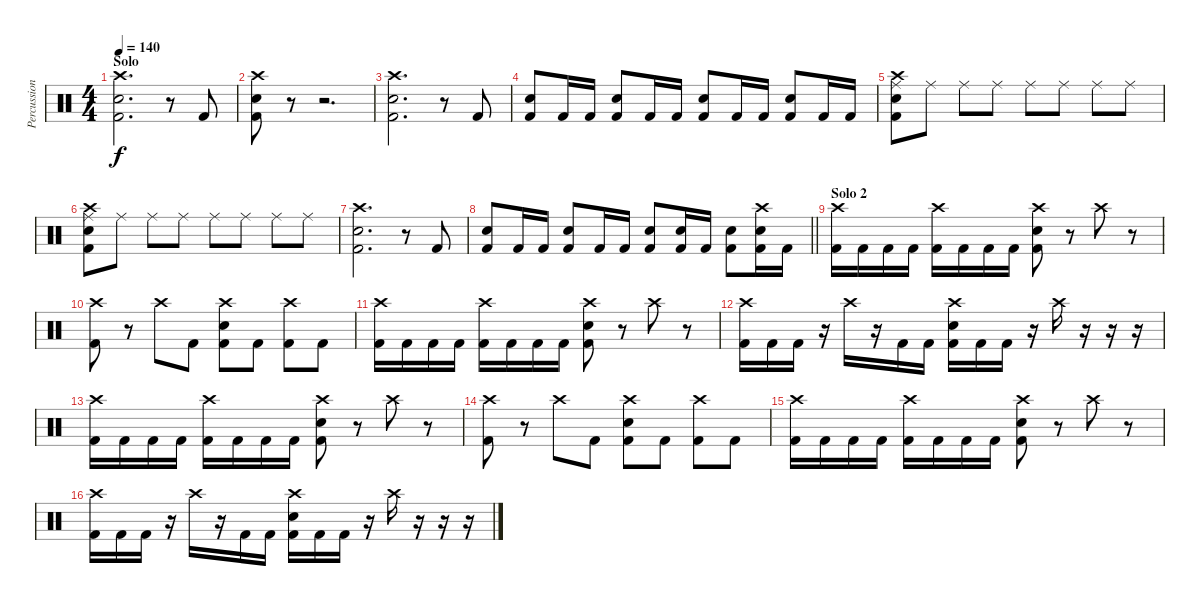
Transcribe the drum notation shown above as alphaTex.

\track ("Percussion" "Percussion") {instrument percussion}
\staff {score}
\articulation defaults
\ts (4 4)
\section ("" "Solo")
\tempo 140
\clef neutral
\ks c
("Crash high (hit)" "Kick (hit) 2" "Electric Snare (hit)").2{d dy f} r.8 "Kick (hit) 2".8 |
("Electric Snare (hit)" "Crash high (hit)" "Kick (hit) 2").8 r.8 r.2{d} |
("Crash high (hit)" "Kick (hit) 2" "Electric Snare (hit)").2{d} r.8 "Kick (hit) 2".8 |
("Electric Snare (hit)" "Kick (hit) 2").8 "Kick (hit) 2".16 "Kick (hit) 2".16 ("Electric Snare (hit)" "Kick (hit) 2").8 "Kick (hit) 2".16 "Kick (hit) 2".16 ("Electric Snare (hit)" "Kick (hit) 2").8 "Kick (hit) 2".16 "Kick (hit) 2".16 ("Electric Snare (hit)" "Kick (hit) 2").8 "Kick (hit) 2".16 "Kick (hit) 2".16 |
("Crash high (hit)" "Ride (middle)" "Kick (hit) 2" "Electric Snare (hit)").8 "Ride (middle)".8 "Ride (middle)".8 "Ride (middle)".8 "Ride (middle)".8 "Ride (middle)".8 "Ride (middle)".8 "Ride (middle)".8 |
("Crash high (hit)" "Ride (middle)" "Kick (hit) 2" "Electric Snare (hit)").8 "Ride (middle)".8 "Ride (middle)".8 "Ride (middle)".8 "Ride (middle)".8 "Ride (middle)".8 "Ride (middle)".8 "Ride (middle)".8 |
("Crash high (hit)" "Kick (hit) 2" "Electric Snare (hit)").2{d} r.8 "Kick (hit) 2".8 |
\barLineRight lightlight
("Electric Snare (hit)" "Kick (hit) 2").8 "Kick (hit) 2".16 "Kick (hit) 2".16 ("Electric Snare (hit)" "Kick (hit) 2").8 "Kick (hit) 2".16 "Kick (hit) 2".16 ("Electric Snare (hit)" "Kick (hit) 2").8 ("Electric Snare (hit)" "Kick (hit) 2").16 "Kick (hit) 2".16 ("Electric Snare (hit)" "Kick (hit) 2").8 ("Crash high (hit)" "Electric Snare (hit)" "Kick (hit) 2").16 "Kick (hit) 2".16 |
\section ("" "Solo 2")
("Crash high (hit)" "Kick (hit) 2").16 "Kick (hit) 2".16 "Kick (hit) 2".16 "Kick (hit) 2".16 ("Crash high (hit)" "Kick (hit) 2").16 "Kick (hit) 2".16 "Kick (hit) 2".16 "Kick (hit) 2".16 ("Crash high (hit)" "Electric Snare (hit)" "Kick (hit) 2").8 r.8 "Crash high (hit)".8 r.8 |
("Crash high (hit)" "Kick (hit) 2").8 r.8 "Crash high (hit)".8 "Kick (hit) 2".8 ("Crash high (hit)" "Electric Snare (hit)" "Kick (hit) 2").8 "Kick (hit) 2".8 ("Crash high (hit)" "Kick (hit) 2").8 "Kick (hit) 2".8 |
("Crash high (hit)" "Kick (hit) 2").16 "Kick (hit) 2".16 "Kick (hit) 2".16 "Kick (hit) 2".16 ("Crash high (hit)" "Kick (hit) 2").16 "Kick (hit) 2".16 "Kick (hit) 2".16 "Kick (hit) 2".16 ("Crash high (hit)" "Electric Snare (hit)" "Kick (hit) 2").8 r.8 "Crash high (hit)".8 r.8 |
("Crash high (hit)" "Kick (hit) 2").16 "Kick (hit) 2".16 "Kick (hit) 2".16 r.16 "Crash high (hit)".16 r.16 "Kick (hit) 2".16 "Kick (hit) 2".16 ("Crash high (hit)" "Electric Snare (hit)" "Kick (hit) 2").16 "Kick (hit) 2".16 "Kick (hit) 2".16 r.16 "Crash high (hit)".16 r.16 r.16 r.16 |
("Crash high (hit)" "Kick (hit) 2").16 "Kick (hit) 2".16 "Kick (hit) 2".16 "Kick (hit) 2".16 ("Crash high (hit)" "Kick (hit) 2").16 "Kick (hit) 2".16 "Kick (hit) 2".16 "Kick (hit) 2".16 ("Crash high (hit)" "Electric Snare (hit)" "Kick (hit) 2").8 r.8 "Crash high (hit)".8 r.8 |
("Crash high (hit)" "Kick (hit) 2").8 r.8 "Crash high (hit)".8 "Kick (hit) 2".8 ("Crash high (hit)" "Electric Snare (hit)" "Kick (hit) 2").8 "Kick (hit) 2".8 ("Crash high (hit)" "Kick (hit) 2").8 "Kick (hit) 2".8 |
("Crash high (hit)" "Kick (hit) 2").16 "Kick (hit) 2".16 "Kick (hit) 2".16 "Kick (hit) 2".16 ("Crash high (hit)" "Kick (hit) 2").16 "Kick (hit) 2".16 "Kick (hit) 2".16 "Kick (hit) 2".16 ("Crash high (hit)" "Electric Snare (hit)" "Kick (hit) 2").8 r.8 "Crash high (hit)".8 r.8 |
("Crash high (hit)" "Kick (hit) 2").16 "Kick (hit) 2".16 "Kick (hit) 2".16 r.16 "Crash high (hit)".16 r.16 "Kick (hit) 2".16 "Kick (hit) 2".16 ("Crash high (hit)" "Electric Snare (hit)" "Kick (hit) 2").16 "Kick (hit) 2".16 "Kick (hit) 2".16 r.16 "Crash high (hit)".16 r.16 r.16 r.16
